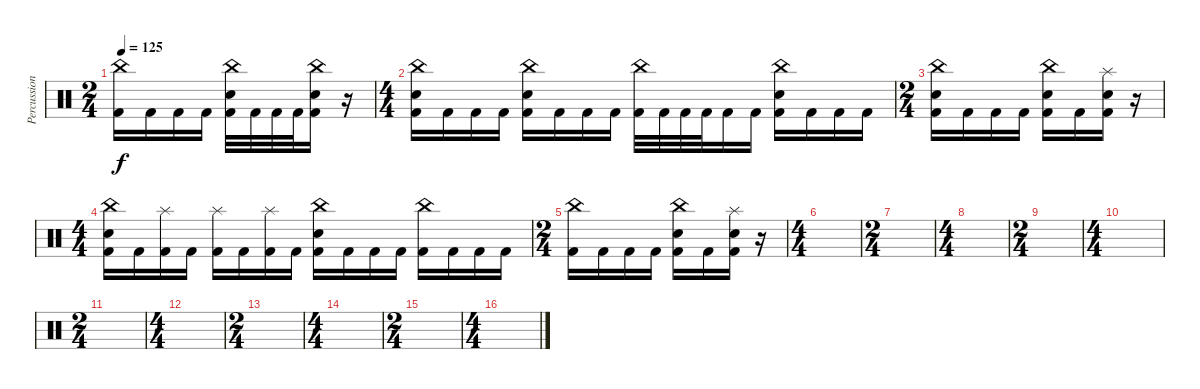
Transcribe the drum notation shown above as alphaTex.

\track ("Percussion" "Percussion") {instrument percussion}
\staff {score}
\articulation defaults
\ts (2 4)
\tempo 125
\clef neutral
\ks c
("China (hit)" "Kick (hit) 2").16{dy f} "Kick (hit) 2".16 "Kick (hit) 2".16 "Kick (hit) 2".16 ("China (hit)" "Electric Snare (hit)" "Kick (hit) 2").32 "Kick (hit) 2".32 "Kick (hit) 2".32 "Kick (hit) 2".32 ("China (hit)" "Electric Snare (hit)" "Kick (hit) 2").16 r.16 |
\ts (4 4)
("China (hit)" "Electric Snare (hit)" "Kick (hit) 2").16 "Kick (hit) 2".16 "Kick (hit) 2".16 "Kick (hit) 2".16 ("China (hit)" "Electric Snare (hit)" "Kick (hit) 2").16 "Kick (hit) 2".16 "Kick (hit) 2".16 "Kick (hit) 2".16 ("China (hit)" "Kick (hit) 2").32 "Kick (hit) 2".32 "Kick (hit) 2".32 "Kick (hit) 2".32 "Kick (hit) 2".16 "Kick (hit) 2".16 ("China (hit)" "Electric Snare (hit)" "Kick (hit) 2").16 "Kick (hit) 2".16 "Kick (hit) 2".16 "Kick (hit) 2".16 |
\ts (2 4)
("China (hit)" "Electric Snare (hit)" "Kick (hit) 2").16 "Kick (hit) 2".16 "Kick (hit) 2".16 "Kick (hit) 2".16 ("China (hit)" "Electric Snare (hit)" "Kick (hit) 2").16 "Kick (hit) 2".16 ("Splash (hit)" "Electric Snare (hit)" "Kick (hit) 2").16 r.16 |
\ts (4 4)
("China (hit)" "Electric Snare (hit)" "Kick (hit) 2").16 "Kick (hit) 2".16 ("Splash (hit)" "Kick (hit) 2").16 "Kick (hit) 2".16 ("Splash (hit)" "Kick (hit) 2").16 "Kick (hit) 2".16 ("Splash (hit)" "Kick (hit) 2").16 "Kick (hit) 2".16 ("China (hit)" "Electric Snare (hit)" "Kick (hit) 2").16 "Kick (hit) 2".16 "Kick (hit) 2".16 "Kick (hit) 2".16 ("China (hit)" "Kick (hit) 2").16 "Kick (hit) 2".16 "Kick (hit) 2".16 "Kick (hit) 2".16 |
\ts (2 4)
("China (hit)" "Kick (hit) 2").16 "Kick (hit) 2".16 "Kick (hit) 2".16 "Kick (hit) 2".16 ("China (hit)" "Electric Snare (hit)" "Kick (hit) 2").16 "Kick (hit) 2".16 ("Splash (hit)" "Electric Snare (hit)" "Kick (hit) 2").16 r.16 |
\ts (4 4)
|
\ts (2 4)
|
\ts (4 4)
|
\ts (2 4)
|
\ts (4 4)
|
\ts (2 4)
|
\ts (4 4)
|
\ts (2 4)
|
\ts (4 4)
|
\ts (2 4)
|
\ts (4 4)
